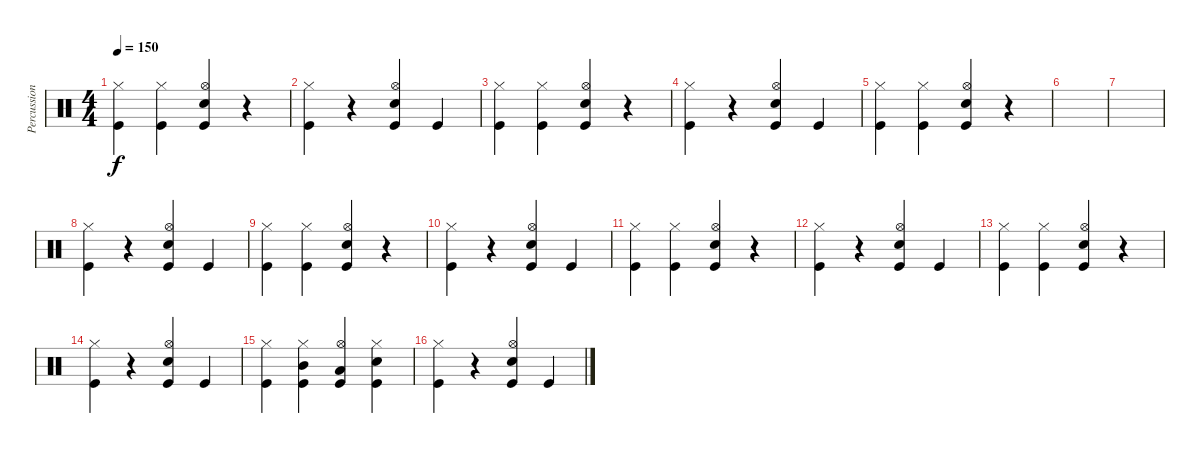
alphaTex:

\track ("Percussion" "Percussion") {instrument percussion}
\staff {score}
\articulation defaults
\ts (4 4)
\tempo 150
\clef neutral
\ks c
("Hi-Hat (closed)" "Kick (hit)").4{dy f} ("Hi-Hat (closed)" "Kick (hit)").4 ("Hi-Hat (open)" "Kick (hit)" "Electric Snare (hit)").4 r.4 |
("Hi-Hat (closed)" "Kick (hit)").4 r.4 ("Hi-Hat (open)" "Kick (hit)" "Electric Snare (hit)").4 "Kick (hit)".4 |
("Hi-Hat (closed)" "Kick (hit)").4 ("Hi-Hat (closed)" "Kick (hit)").4 ("Hi-Hat (open)" "Kick (hit)" "Electric Snare (hit)").4 r.4 |
("Hi-Hat (closed)" "Kick (hit)").4 r.4 ("Hi-Hat (open)" "Kick (hit)" "Electric Snare (hit)").4 "Kick (hit)".4 |
("Hi-Hat (closed)" "Kick (hit)").4 ("Hi-Hat (closed)" "Kick (hit)").4 ("Hi-Hat (open)" "Kick (hit)" "Electric Snare (hit)").4 r.4 |
|
|
("Hi-Hat (closed)" "Kick (hit)").4 r.4 ("Hi-Hat (open)" "Kick (hit)" "Electric Snare (hit)").4 "Kick (hit)".4 |
("Hi-Hat (closed)" "Kick (hit)").4 ("Hi-Hat (closed)" "Kick (hit)").4 ("Hi-Hat (open)" "Kick (hit)" "Electric Snare (hit)").4 r.4 |
("Hi-Hat (closed)" "Kick (hit)").4 r.4 ("Hi-Hat (open)" "Kick (hit)" "Electric Snare (hit)").4 "Kick (hit)".4 |
("Hi-Hat (closed)" "Kick (hit)").4 ("Hi-Hat (closed)" "Kick (hit)").4 ("Hi-Hat (open)" "Kick (hit)" "Electric Snare (hit)").4 r.4 |
("Hi-Hat (closed)" "Kick (hit)").4 r.4 ("Hi-Hat (open)" "Kick (hit)" "Electric Snare (hit)").4 "Kick (hit)".4 |
("Hi-Hat (closed)" "Kick (hit)").4 ("Hi-Hat (closed)" "Kick (hit)").4 ("Hi-Hat (open)" "Kick (hit)" "Electric Snare (hit)").4 r.4 |
("Hi-Hat (closed)" "Kick (hit)").4 r.4 ("Hi-Hat (open)" "Kick (hit)" "Electric Snare (hit)").4 "Kick (hit)".4 |
("Hi-Hat (closed)" "Kick (hit)").4 ("Hi-Hat (closed)" "Kick (hit)" "Mid Tom (hit)").4 ("Hi-Hat (open)" "Kick (hit)" "Low Tom (hit)").4 ("Hi-Hat (closed)" "Kick (hit)" "Electric Snare (hit)").4 |
("Hi-Hat (closed)" "Kick (hit)").4 r.4 ("Hi-Hat (open)" "Kick (hit)" "Electric Snare (hit)").4 "Kick (hit)".4
